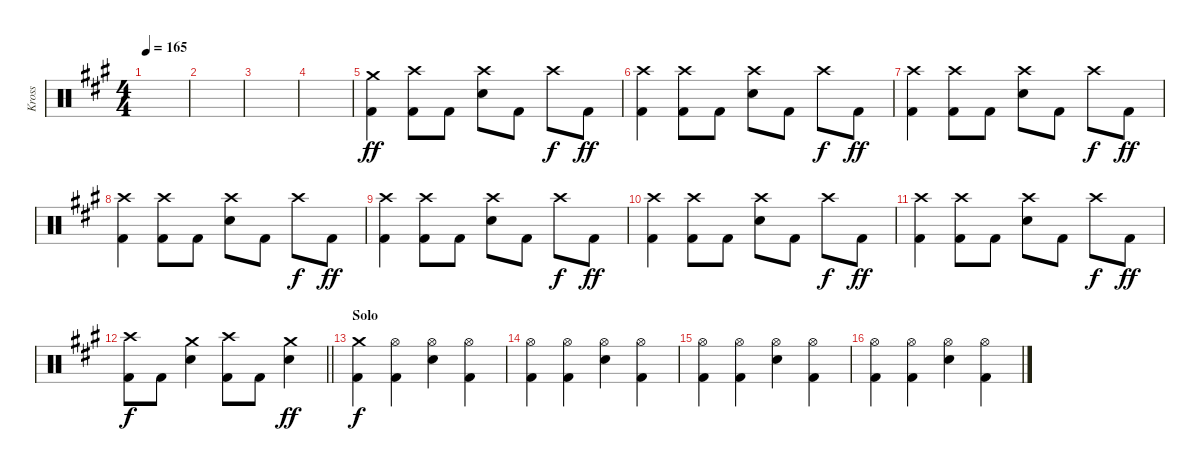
\track ("Kross" "Kross") {instrument percussion}
\staff {score}
\articulation defaults
\ts (4 4)
\tempo 165
\clef neutral
\ks a
|
|
|
|
("Crash medium (hit)" "Kick (hit) 2").4{dy ff} ("Crash high (hit)" "Kick (hit) 2").8 "Kick (hit) 2".8 ("Crash high (hit)" "Snare (hit) 2").8 "Kick (hit) 2".8 "Crash high (hit)".8{dy f} "Kick (hit) 2".8{dy ff} |
("Crash high (hit)" "Kick (hit) 2").4 ("Crash high (hit)" "Kick (hit) 2").8 "Kick (hit) 2".8 ("Crash high (hit)" "Snare (hit) 2").8 "Kick (hit) 2".8 "Crash high (hit)".8{dy f} "Kick (hit) 2".8{dy ff} |
("Crash high (hit)" "Kick (hit) 2").4 ("Crash high (hit)" "Kick (hit) 2").8 "Kick (hit) 2".8 ("Crash high (hit)" "Snare (hit) 2").8 "Kick (hit) 2".8 "Crash high (hit)".8{dy f} "Kick (hit) 2".8{dy ff} |
("Crash high (hit)" "Kick (hit) 2").4 ("Crash high (hit)" "Kick (hit) 2").8 "Kick (hit) 2".8 ("Crash high (hit)" "Snare (hit) 2").8 "Kick (hit) 2".8 "Crash high (hit)".8{dy f} "Kick (hit) 2".8{dy ff} |
("Crash high (hit)" "Kick (hit) 2").4 ("Crash high (hit)" "Kick (hit) 2").8 "Kick (hit) 2".8 ("Crash high (hit)" "Snare (hit) 2").8 "Kick (hit) 2".8 "Crash high (hit)".8{dy f} "Kick (hit) 2".8{dy ff} |
("Crash high (hit)" "Kick (hit) 2").4 ("Crash high (hit)" "Kick (hit) 2").8 "Kick (hit) 2".8 ("Crash high (hit)" "Snare (hit) 2").8 "Kick (hit) 2".8 "Crash high (hit)".8{dy f} "Kick (hit) 2".8{dy ff} |
("Crash high (hit)" "Kick (hit) 2").4 ("Crash high (hit)" "Kick (hit) 2").8 "Kick (hit) 2".8 ("Crash high (hit)" "Snare (hit) 2").8 "Kick (hit) 2".8 "Crash high (hit)".8{dy f} "Kick (hit) 2".8{dy ff} |
\barLineRight lightlight
("Crash high (hit)" "Kick (hit) 2").8{dy f} "Kick (hit) 2".8 ("Crash medium (hit)" "Snare (hit) 2").4 ("Crash high (hit)" "Kick (hit) 2").8 "Kick (hit) 2".8 ("Crash medium (hit)" "Snare (hit) 2").4{dy ff} |
\section ("" "Solo")
("Crash medium (hit)" "Kick (hit) 2").4{dy f} ("Hi-Hat (open)" "Kick (hit) 2").4 ("Hi-Hat (open)" "Snare (hit) 2").4 ("Hi-Hat (open)" "Kick (hit) 2").4 |
("Hi-Hat (open)" "Kick (hit) 2").4 ("Hi-Hat (open)" "Kick (hit) 2").4 ("Hi-Hat (open)" "Snare (hit) 2").4 ("Hi-Hat (open)" "Kick (hit) 2").4 |
("Hi-Hat (open)" "Kick (hit) 2").4 ("Hi-Hat (open)" "Kick (hit) 2").4 ("Hi-Hat (open)" "Snare (hit) 2").4 ("Hi-Hat (open)" "Kick (hit) 2").4 |
("Hi-Hat (open)" "Kick (hit) 2").4 ("Hi-Hat (open)" "Kick (hit) 2").4 ("Hi-Hat (open)" "Snare (hit) 2").4 ("Hi-Hat (open)" "Kick (hit) 2").4
